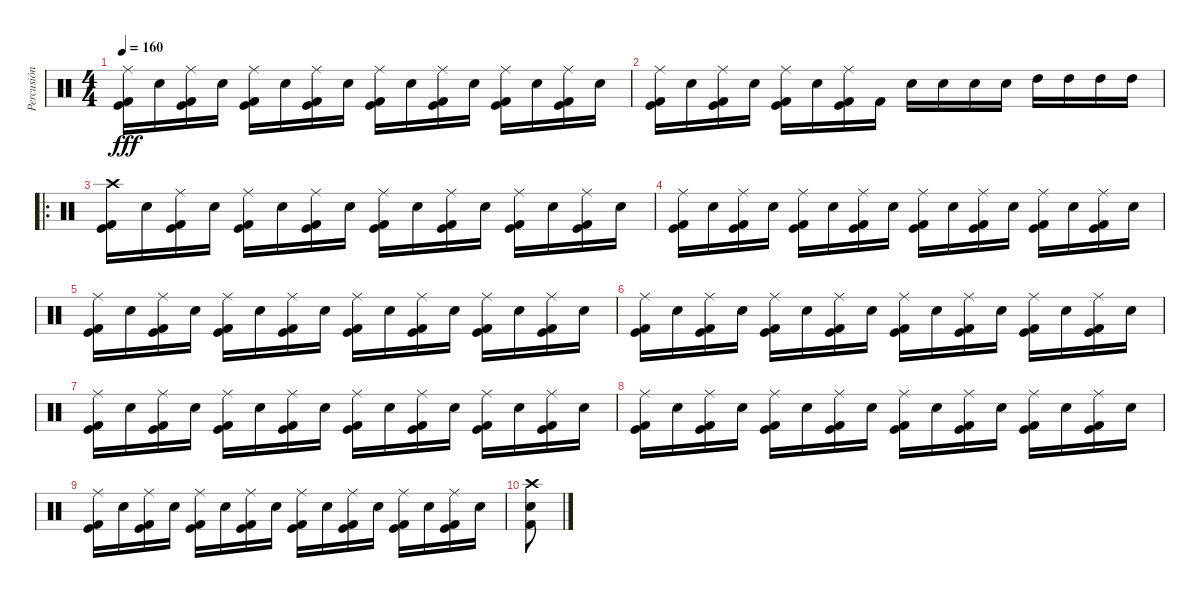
\track ("Percusión" "Percusión") {instrument percussion}
\staff {score}
\articulation defaults
\ts (4 4)
\tempo 160
\clef neutral
\ks c
("Ride (middle)" "Kick (hit) 2" "Kick (hit)").16{dy fff} "Electric Snare (hit)".16 ("Ride (middle)" "Kick (hit) 2" "Kick (hit)").16 "Electric Snare (hit)".16 ("Ride (middle)" "Kick (hit) 2" "Kick (hit)").16 "Electric Snare (hit)".16 ("Ride (middle)" "Kick (hit) 2" "Kick (hit)").16 "Electric Snare (hit)".16 ("Ride (middle)" "Kick (hit) 2" "Kick (hit)").16 "Electric Snare (hit)".16 ("Ride (middle)" "Kick (hit) 2" "Kick (hit)").16 "Electric Snare (hit)".16 ("Ride (middle)" "Kick (hit) 2" "Kick (hit)").16 "Electric Snare (hit)".16 ("Ride (middle)" "Kick (hit) 2" "Kick (hit)").16 "Electric Snare (hit)".16 |
("Ride (middle)" "Kick (hit) 2" "Kick (hit)").16 "Electric Snare (hit)".16 ("Ride (middle)" "Kick (hit) 2" "Kick (hit)").16 "Electric Snare (hit)".16 ("Ride (middle)" "Kick (hit) 2" "Kick (hit)").16 "Electric Snare (hit)".16 ("Ride (middle)" "Kick (hit) 2" "Kick (hit)").16 "Kick (hit) 2".16 "Electric Snare (hit)".16 "Electric Snare (hit)".16 "Electric Snare (hit)".16 "Electric Snare (hit)".16 "High Tom (hit)".16 "High Tom (hit)".16 "High Tom (hit)".16 "High Tom (hit)".16 |
\ro
("Crash high (hit)" "Kick (hit) 2" "Kick (hit)").16 "Electric Snare (hit)".16 ("Ride (middle)" "Kick (hit) 2" "Kick (hit)").16 "Electric Snare (hit)".16 ("Ride (middle)" "Kick (hit) 2" "Kick (hit)").16 "Electric Snare (hit)".16 ("Ride (middle)" "Kick (hit) 2" "Kick (hit)").16 "Electric Snare (hit)".16 ("Ride (middle)" "Kick (hit) 2" "Kick (hit)").16 "Electric Snare (hit)".16 ("Ride (middle)" "Kick (hit) 2" "Kick (hit)").16 "Electric Snare (hit)".16 ("Ride (middle)" "Kick (hit) 2" "Kick (hit)").16 "Electric Snare (hit)".16 ("Ride (middle)" "Kick (hit) 2" "Kick (hit)").16 "Electric Snare (hit)".16 |
("Ride (middle)" "Kick (hit) 2" "Kick (hit)").16 "Electric Snare (hit)".16 ("Ride (middle)" "Kick (hit) 2" "Kick (hit)").16 "Electric Snare (hit)".16 ("Ride (middle)" "Kick (hit) 2" "Kick (hit)").16 "Electric Snare (hit)".16 ("Ride (middle)" "Kick (hit) 2" "Kick (hit)").16 "Electric Snare (hit)".16 ("Ride (middle)" "Kick (hit) 2" "Kick (hit)").16 "Electric Snare (hit)".16 ("Ride (middle)" "Kick (hit) 2" "Kick (hit)").16 "Electric Snare (hit)".16 ("Ride (middle)" "Kick (hit) 2" "Kick (hit)").16 "Electric Snare (hit)".16 ("Ride (middle)" "Kick (hit) 2" "Kick (hit)").16 "Electric Snare (hit)".16 |
("Ride (middle)" "Kick (hit) 2" "Kick (hit)").16 "Electric Snare (hit)".16 ("Ride (middle)" "Kick (hit) 2" "Kick (hit)").16 "Electric Snare (hit)".16 ("Ride (middle)" "Kick (hit) 2" "Kick (hit)").16 "Electric Snare (hit)".16 ("Ride (middle)" "Kick (hit) 2" "Kick (hit)").16 "Electric Snare (hit)".16 ("Ride (middle)" "Kick (hit) 2" "Kick (hit)").16 "Electric Snare (hit)".16 ("Ride (middle)" "Kick (hit) 2" "Kick (hit)").16 "Electric Snare (hit)".16 ("Ride (middle)" "Kick (hit) 2" "Kick (hit)").16 "Electric Snare (hit)".16 ("Ride (middle)" "Kick (hit) 2" "Kick (hit)").16 "Electric Snare (hit)".16 |
("Ride (middle)" "Kick (hit) 2" "Kick (hit)").16 "Electric Snare (hit)".16 ("Ride (middle)" "Kick (hit) 2" "Kick (hit)").16 "Electric Snare (hit)".16 ("Ride (middle)" "Kick (hit) 2" "Kick (hit)").16 "Electric Snare (hit)".16 ("Ride (middle)" "Kick (hit) 2" "Kick (hit)").16 "Electric Snare (hit)".16 ("Ride (middle)" "Kick (hit) 2" "Kick (hit)").16 "Electric Snare (hit)".16 ("Ride (middle)" "Kick (hit) 2" "Kick (hit)").16 "Electric Snare (hit)".16 ("Ride (middle)" "Kick (hit) 2" "Kick (hit)").16 "Electric Snare (hit)".16 ("Ride (middle)" "Kick (hit) 2" "Kick (hit)").16 "Electric Snare (hit)".16 |
("Ride (middle)" "Kick (hit) 2" "Kick (hit)").16 "Electric Snare (hit)".16 ("Ride (middle)" "Kick (hit) 2" "Kick (hit)").16 "Electric Snare (hit)".16 ("Ride (middle)" "Kick (hit) 2" "Kick (hit)").16 "Electric Snare (hit)".16 ("Ride (middle)" "Kick (hit) 2" "Kick (hit)").16 "Electric Snare (hit)".16 ("Ride (middle)" "Kick (hit) 2" "Kick (hit)").16 "Electric Snare (hit)".16 ("Ride (middle)" "Kick (hit) 2" "Kick (hit)").16 "Electric Snare (hit)".16 ("Ride (middle)" "Kick (hit) 2" "Kick (hit)").16 "Electric Snare (hit)".16 ("Ride (middle)" "Kick (hit) 2" "Kick (hit)").16 "Electric Snare (hit)".16 |
("Ride (middle)" "Kick (hit) 2" "Kick (hit)").16 "Electric Snare (hit)".16 ("Ride (middle)" "Kick (hit) 2" "Kick (hit)").16 "Electric Snare (hit)".16 ("Ride (middle)" "Kick (hit) 2" "Kick (hit)").16 "Electric Snare (hit)".16 ("Ride (middle)" "Kick (hit) 2" "Kick (hit)").16 "Electric Snare (hit)".16 ("Ride (middle)" "Kick (hit) 2" "Kick (hit)").16 "Electric Snare (hit)".16 ("Ride (middle)" "Kick (hit) 2" "Kick (hit)").16 "Electric Snare (hit)".16 ("Ride (middle)" "Kick (hit) 2" "Kick (hit)").16 "Electric Snare (hit)".16 ("Ride (middle)" "Kick (hit) 2" "Kick (hit)").16 "Electric Snare (hit)".16 |
("Ride (middle)" "Kick (hit) 2" "Kick (hit)").16 "Electric Snare (hit)".16 ("Ride (middle)" "Kick (hit) 2" "Kick (hit)").16 "Electric Snare (hit)".16 ("Ride (middle)" "Kick (hit) 2" "Kick (hit)").16 "Electric Snare (hit)".16 ("Ride (middle)" "Kick (hit) 2" "Kick (hit)").16 "Electric Snare (hit)".16 ("Ride (middle)" "Kick (hit) 2" "Kick (hit)").16 "Electric Snare (hit)".16 ("Ride (middle)" "Kick (hit) 2" "Kick (hit)").16 "Electric Snare (hit)".16 ("Ride (middle)" "Kick (hit) 2" "Kick (hit)").16 "Electric Snare (hit)".16 ("Ride (middle)" "Kick (hit) 2" "Kick (hit)").16 "Electric Snare (hit)".16 |
("Crash high (hit)" "Electric Snare (hit)" "Kick (hit) 2").8
